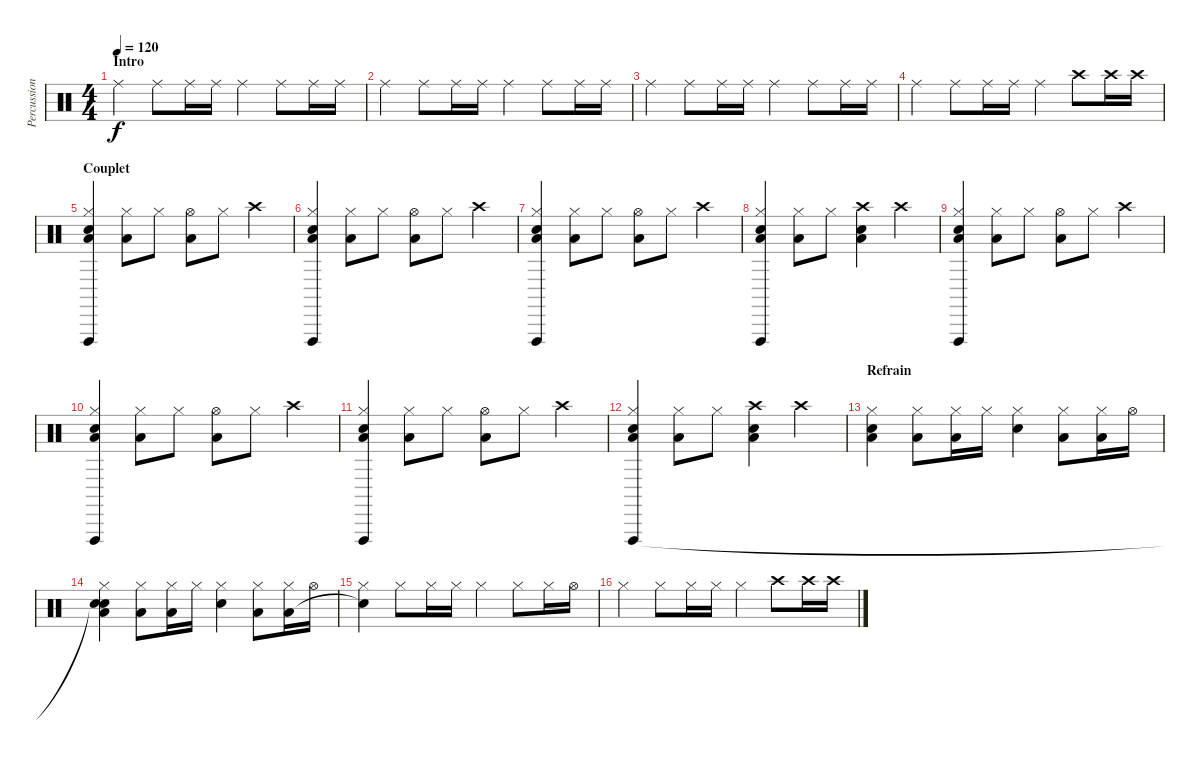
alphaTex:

\track ("Percussions" "Percussion") {instrument percussion}
\staff {score}
\articulation defaults
\ts (4 4)
\section ("" "Intro")
\tempo 120
\clef neutral
\ks c "Ride (middle)".4{dy f} "Ride (middle)".8 "Ride (middle)".16 "Ride (middle)".16 "Ride (middle)".4 "Ride (middle)".8 "Ride (middle)".16 "Ride (middle)".16
|
"Ride (middle)".4 "Ride (middle)".8 "Ride (middle)".16 "Ride (middle)".16 "Ride (middle)".4 "Ride (middle)".8 "Ride (middle)".16 "Ride (middle)".16 |
"Ride (middle)".4 "Ride (middle)".8 "Ride (middle)".16 "Ride (middle)".16 "Ride (middle)".4 "Ride (middle)".8 "Ride (middle)".16 "Ride (middle)".16 |
"Ride (middle)".4 "Ride (middle)".8 "Ride (middle)".16 "Ride (middle)".16 "Ride (middle)".4 "Crash high (hit)".8 "Crash high (hit)".16 "Crash high (hit)".16 |
\section ("" "Couplet")
("Hi-Hat (closed)" "Low Tom (hit)" "Snare (hit) 2" "Vibraslap (hit)").4 ("Hi-Hat (closed)" "Low Tom (hit)").8 "Hi-Hat (closed)".8 ("Hi-Hat (open)" "Low Tom (hit)").8 "Hi-Hat (closed)".8 "Crash high (hit)".4 |
("Hi-Hat (closed)" "Low Tom (hit)" "Snare (hit) 2" "Vibraslap (hit)").4 ("Hi-Hat (closed)" "Low Tom (hit)").8 "Hi-Hat (closed)".8 ("Hi-Hat (open)" "Low Tom (hit)").8 "Hi-Hat (closed)".8 "Crash high (hit)".4 |
("Hi-Hat (closed)" "Low Tom (hit)" "Snare (hit) 2" "Vibraslap (hit)").4 ("Hi-Hat (closed)" "Low Tom (hit)").8 "Hi-Hat (closed)".8 ("Hi-Hat (open)" "Low Tom (hit)").8 "Hi-Hat (closed)".8 "Crash high (hit)".4 |
("Hi-Hat (closed)" "Low Tom (hit)" "Snare (hit) 2" "Vibraslap (hit)").4 ("Hi-Hat (closed)" "Low Tom (hit)").8 "Hi-Hat (closed)".8 ("Crash high (hit)" "Low Tom (hit)" "Snare (hit) 2").4 "Crash high (hit)".4 |
("Hi-Hat (closed)" "Low Tom (hit)" "Snare (hit) 2" "Vibraslap (hit)").4 ("Hi-Hat (closed)" "Low Tom (hit)").8 "Hi-Hat (closed)".8 ("Hi-Hat (open)" "Low Tom (hit)").8 "Hi-Hat (closed)".8 "Crash high (hit)".4 |
("Hi-Hat (closed)" "Low Tom (hit)" "Snare (hit) 2" "Vibraslap (hit)").4 ("Hi-Hat (closed)" "Low Tom (hit)").8 "Hi-Hat (closed)".8 ("Hi-Hat (open)" "Low Tom (hit)").8 "Hi-Hat (closed)".8 "Crash high (hit)".4 |
("Hi-Hat (closed)" "Low Tom (hit)" "Snare (hit) 2" "Vibraslap (hit)").4 ("Hi-Hat (closed)" "Low Tom (hit)").8 "Hi-Hat (closed)".8 ("Hi-Hat (open)" "Low Tom (hit)").8 "Hi-Hat (closed)".8 "Crash high (hit)".4 |
("Hi-Hat (closed)" "Low Tom (hit)" "Snare (hit) 2" "Vibraslap (hit)").4 ("Hi-Hat (closed)" "Low Tom (hit)").8 "Hi-Hat (closed)".8 ("Crash high (hit)" "Low Tom (hit)" "Snare (hit) 2").4 "Crash high (hit)".4 |
\section ("" "Refrain")
("Hi-Hat (closed)" "Snare (hit) 2" "Low Tom (hit)").4 ("Hi-Hat (closed)" "Low Tom (hit)").8 ("Hi-Hat (closed)" "Low Tom (hit)").16 "Hi-Hat (closed)".16 ("Hi-Hat (closed)" "Snare (hit) 2").4 ("Hi-Hat (closed)" "Low Tom (hit)").8 ("Hi-Hat (closed)" "Low Tom (hit)").16 "Hi-Hat (open)".16 |
("Hi-Hat (closed)" "Snare (hit) 2" "Low Tom (hit)" "Snare (hit)"{t}).4 ("Hi-Hat (closed)" "Low Tom (hit)").8 ("Hi-Hat (closed)" "Low Tom (hit)").16 "Hi-Hat (closed)".16 ("Hi-Hat (closed)" "Snare (hit) 2").4 ("Hi-Hat (closed)" "Low Tom (hit)").8 ("Hi-Hat (closed)" "Low Tom (hit)").16 "Hi-Hat (open)".16 |
("Hi-Hat (closed)" "Snare (hit)"{t}).4 "Hi-Hat (closed)".8 "Hi-Hat (closed)".16 "Hi-Hat (closed)".16 "Hi-Hat (closed)".4 "Hi-Hat (closed)".8 "Hi-Hat (closed)".16 "Hi-Hat (open)".16 |
"Hi-Hat (closed)".4 "Hi-Hat (closed)".8 "Hi-Hat (closed)".16 "Hi-Hat (closed)".16 "Hi-Hat (closed)".4 "Crash high (hit)".8 "Crash high (hit)".16 "Crash high (hit)".16
